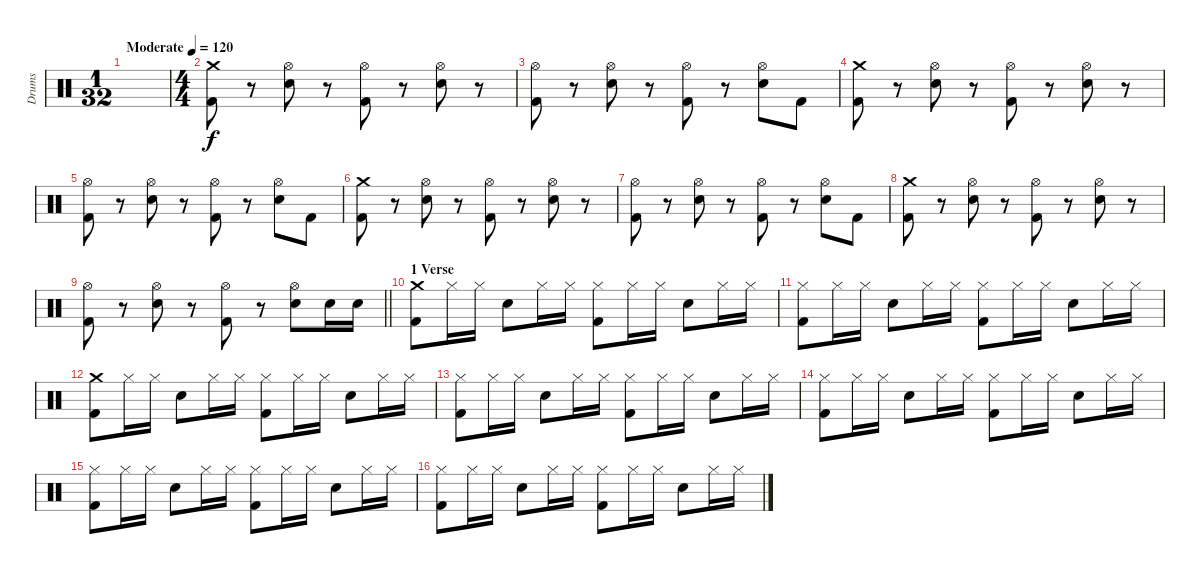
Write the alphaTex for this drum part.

\track ("Drums" "Drums") {instrument percussion}
\staff {score}
\articulation defaults
\ts (1 32)
\tempo (120 "Moderate")
\clef neutral
\ks c
|
\ts (4 4)
("Crash medium (hit)" "Kick (hit) 2").8 r.8 ("Hi-Hat (open)" "Electric Snare (hit)").8 r.8 ("Hi-Hat (open)" "Kick (hit) 2").8 r.8 ("Hi-Hat (open)" "Electric Snare (hit)").8 r.8 |
("Hi-Hat (open)" "Kick (hit) 2").8 r.8 ("Hi-Hat (open)" "Electric Snare (hit)").8 r.8 ("Hi-Hat (open)" "Kick (hit) 2").8 r.8 ("Hi-Hat (open)" "Electric Snare (hit)").8 "Kick (hit) 2".8 |
("Crash medium (hit)" "Kick (hit) 2").8 r.8 ("Hi-Hat (open)" "Electric Snare (hit)").8 r.8 ("Hi-Hat (open)" "Kick (hit) 2").8 r.8 ("Hi-Hat (open)" "Electric Snare (hit)").8 r.8 |
("Hi-Hat (open)" "Kick (hit) 2").8 r.8 ("Hi-Hat (open)" "Electric Snare (hit)").8 r.8 ("Hi-Hat (open)" "Kick (hit) 2").8 r.8 ("Hi-Hat (open)" "Electric Snare (hit)").8 "Kick (hit) 2".8 |
("Crash medium (hit)" "Kick (hit) 2").8 r.8 ("Hi-Hat (open)" "Electric Snare (hit)").8 r.8 ("Hi-Hat (open)" "Kick (hit) 2").8 r.8 ("Hi-Hat (open)" "Electric Snare (hit)").8 r.8 |
("Hi-Hat (open)" "Kick (hit) 2").8 r.8 ("Hi-Hat (open)" "Electric Snare (hit)").8 r.8 ("Hi-Hat (open)" "Kick (hit) 2").8 r.8 ("Hi-Hat (open)" "Electric Snare (hit)").8 "Kick (hit) 2".8 |
("Crash medium (hit)" "Kick (hit) 2").8 r.8 ("Hi-Hat (open)" "Electric Snare (hit)").8 r.8 ("Hi-Hat (open)" "Kick (hit) 2").8 r.8 ("Hi-Hat (open)" "Electric Snare (hit)").8 r.8 |
\barLineRight lightlight
("Hi-Hat (open)" "Kick (hit) 2").8 r.8 ("Hi-Hat (open)" "Electric Snare (hit)").8 r.8 ("Hi-Hat (open)" "Kick (hit) 2").8 r.8 ("Hi-Hat (open)" "Electric Snare (hit)").8 "Electric Snare (hit)".16 "Electric Snare (hit)".16 |
\section ("" "1 Verse")
("Crash medium (hit)" "Kick (hit) 2").8 "Hi-Hat (closed)".16 "Hi-Hat (closed)".16 "Electric Snare (hit)".8 "Hi-Hat (closed)".16 "Hi-Hat (closed)".16 ("Hi-Hat (closed)" "Kick (hit) 2").8 "Hi-Hat (closed)".16 "Hi-Hat (closed)".16 "Electric Snare (hit)".8 "Hi-Hat (closed)".16 "Hi-Hat (closed)".16 |
("Hi-Hat (closed)" "Kick (hit) 2").8 "Hi-Hat (closed)".16 "Hi-Hat (closed)".16 "Electric Snare (hit)".8 "Hi-Hat (closed)".16 "Hi-Hat (closed)".16 ("Hi-Hat (closed)" "Kick (hit) 2").8 "Hi-Hat (closed)".16 "Hi-Hat (closed)".16 "Electric Snare (hit)".8 "Hi-Hat (closed)".16 "Hi-Hat (closed)".16 |
("Crash medium (hit)" "Kick (hit) 2").8 "Hi-Hat (closed)".16 "Hi-Hat (closed)".16 "Electric Snare (hit)".8 "Hi-Hat (closed)".16 "Hi-Hat (closed)".16 ("Hi-Hat (closed)" "Kick (hit) 2").8 "Hi-Hat (closed)".16 "Hi-Hat (closed)".16 "Electric Snare (hit)".8 "Hi-Hat (closed)".16 "Hi-Hat (closed)".16 |
("Hi-Hat (closed)" "Kick (hit) 2").8 "Hi-Hat (closed)".16 "Hi-Hat (closed)".16 "Electric Snare (hit)".8 "Hi-Hat (closed)".16 "Hi-Hat (closed)".16 ("Hi-Hat (closed)" "Kick (hit) 2").8 "Hi-Hat (closed)".16 "Hi-Hat (closed)".16 "Electric Snare (hit)".8 "Hi-Hat (closed)".16 "Hi-Hat (closed)".16 |
("Hi-Hat (closed)" "Kick (hit) 2").8 "Hi-Hat (closed)".16 "Hi-Hat (closed)".16 "Electric Snare (hit)".8 "Hi-Hat (closed)".16 "Hi-Hat (closed)".16 ("Hi-Hat (closed)" "Kick (hit) 2").8 "Hi-Hat (closed)".16 "Hi-Hat (closed)".16 "Electric Snare (hit)".8 "Hi-Hat (closed)".16 "Hi-Hat (closed)".16 |
("Hi-Hat (closed)" "Kick (hit) 2").8 "Hi-Hat (closed)".16 "Hi-Hat (closed)".16 "Electric Snare (hit)".8 "Hi-Hat (closed)".16 "Hi-Hat (closed)".16 ("Hi-Hat (closed)" "Kick (hit) 2").8 "Hi-Hat (closed)".16 "Hi-Hat (closed)".16 "Electric Snare (hit)".8 "Hi-Hat (closed)".16 "Hi-Hat (closed)".16 |
("Hi-Hat (closed)" "Kick (hit) 2").8 "Hi-Hat (closed)".16 "Hi-Hat (closed)".16 "Electric Snare (hit)".8 "Hi-Hat (closed)".16 "Hi-Hat (closed)".16 ("Hi-Hat (closed)" "Kick (hit) 2").8 "Hi-Hat (closed)".16 "Hi-Hat (closed)".16 "Electric Snare (hit)".8 "Hi-Hat (closed)".16 "Hi-Hat (closed)".16
